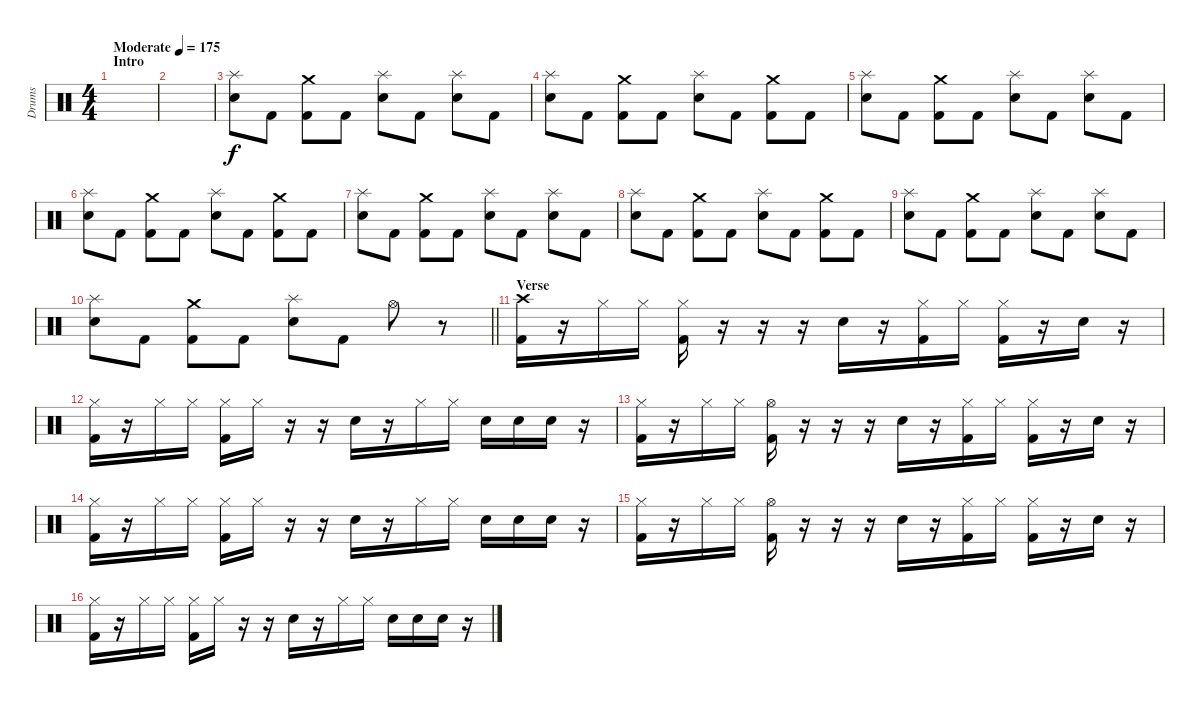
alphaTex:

\track ("Drums" "Drums") {instrument percussion}
\staff {score}
\articulation defaults
\ts (4 4)
\section ("" "Intro")
\tempo (175 "Moderate")
\clef neutral
\ks c
|
|
("Splash (hit)" "Electric Snare (hit)").8 "Kick (hit) 2".8 ("Crash medium (hit)" "Kick (hit) 2").8 "Kick (hit) 2".8 ("Splash (hit)" "Electric Snare (hit)").8 "Kick (hit) 2".8 ("Splash (hit)" "Electric Snare (hit)").8 "Kick (hit) 2".8 |
("Splash (hit)" "Electric Snare (hit)").8 "Kick (hit) 2".8 ("Crash medium (hit)" "Kick (hit) 2").8 "Kick (hit) 2".8 ("Splash (hit)" "Electric Snare (hit)").8 "Kick (hit) 2".8 ("Crash medium (hit)" "Kick (hit) 2").8 "Kick (hit) 2".8 |
("Splash (hit)" "Electric Snare (hit)").8 "Kick (hit) 2".8 ("Crash medium (hit)" "Kick (hit) 2").8 "Kick (hit) 2".8 ("Splash (hit)" "Electric Snare (hit)").8 "Kick (hit) 2".8 ("Splash (hit)" "Electric Snare (hit)").8 "Kick (hit) 2".8 |
("Splash (hit)" "Electric Snare (hit)").8 "Kick (hit) 2".8 ("Crash medium (hit)" "Kick (hit) 2").8 "Kick (hit) 2".8 ("Splash (hit)" "Electric Snare (hit)").8 "Kick (hit) 2".8 ("Crash medium (hit)" "Kick (hit) 2").8 "Kick (hit) 2".8 |
("Splash (hit)" "Electric Snare (hit)").8 "Kick (hit) 2".8 ("Crash medium (hit)" "Kick (hit) 2").8 "Kick (hit) 2".8 ("Splash (hit)" "Electric Snare (hit)").8 "Kick (hit) 2".8 ("Splash (hit)" "Electric Snare (hit)").8 "Kick (hit) 2".8 |
("Splash (hit)" "Electric Snare (hit)").8 "Kick (hit) 2".8 ("Crash medium (hit)" "Kick (hit) 2").8 "Kick (hit) 2".8 ("Splash (hit)" "Electric Snare (hit)").8 "Kick (hit) 2".8 ("Crash medium (hit)" "Kick (hit) 2").8 "Kick (hit) 2".8 |
("Splash (hit)" "Electric Snare (hit)").8 "Kick (hit) 2".8 ("Crash medium (hit)" "Kick (hit) 2").8 "Kick (hit) 2".8 ("Splash (hit)" "Electric Snare (hit)").8 "Kick (hit) 2".8 ("Splash (hit)" "Electric Snare (hit)").8 "Kick (hit) 2".8 |
\barLineRight lightlight
("Splash (hit)" "Electric Snare (hit)").8 "Kick (hit) 2".8 ("Crash medium (hit)" "Kick (hit) 2").8 "Kick (hit) 2".8 ("Splash (hit)" "Electric Snare (hit)").8 "Kick (hit) 2".8 "Hi-Hat (open)".8 r.8 |
\section ("" "Verse")
("Crash high (hit)" "Kick (hit) 2").16 r.16 "Hi-Hat (closed)".16 "Hi-Hat (closed)".16 ("Hi-Hat (closed)" "Kick (hit) 2").16 r.16 r.16 r.16 "Electric Snare (hit)".16 r.16 ("Hi-Hat (closed)" "Kick (hit) 2").16 "Hi-Hat (closed)".16 ("Hi-Hat (closed)" "Kick (hit) 2").16 r.16 "Electric Snare (hit)".16 r.16 |
("Hi-Hat (closed)" "Kick (hit) 2").16 r.16 "Hi-Hat (closed)".16 "Hi-Hat (closed)".16 ("Hi-Hat (closed)" "Kick (hit) 2").16 "Hi-Hat (closed)".16 r.16 r.16 "Electric Snare (hit)".16 r.16 "Hi-Hat (closed)".16 "Hi-Hat (closed)".16 "Electric Snare (hit)".16 "Electric Snare (hit)".16 "Electric Snare (hit)".16 r.16 |
("Hi-Hat (closed)" "Kick (hit) 2").16 r.16 "Hi-Hat (closed)".16 "Hi-Hat (closed)".16 ("Hi-Hat (open)" "Kick (hit) 2").16 r.16 r.16 r.16 "Electric Snare (hit)".16 r.16 ("Hi-Hat (closed)" "Kick (hit) 2").16 "Hi-Hat (closed)".16 ("Hi-Hat (closed)" "Kick (hit) 2").16 r.16 "Electric Snare (hit)".16 r.16 |
("Hi-Hat (closed)" "Kick (hit) 2").16 r.16 "Hi-Hat (closed)".16 "Hi-Hat (closed)".16 ("Hi-Hat (closed)" "Kick (hit) 2").16 "Hi-Hat (closed)".16 r.16 r.16 "Electric Snare (hit)".16 r.16 "Hi-Hat (closed)".16 "Hi-Hat (closed)".16 "Electric Snare (hit)".16 "Electric Snare (hit)".16 "Electric Snare (hit)".16 r.16 |
("Hi-Hat (closed)" "Kick (hit) 2").16 r.16 "Hi-Hat (closed)".16 "Hi-Hat (closed)".16 ("Hi-Hat (open)" "Kick (hit) 2").16 r.16 r.16 r.16 "Electric Snare (hit)".16 r.16 ("Hi-Hat (closed)" "Kick (hit) 2").16 "Hi-Hat (closed)".16 ("Hi-Hat (closed)" "Kick (hit) 2").16 r.16 "Electric Snare (hit)".16 r.16 |
("Hi-Hat (closed)" "Kick (hit) 2").16 r.16 "Hi-Hat (closed)".16 "Hi-Hat (closed)".16 ("Hi-Hat (closed)" "Kick (hit) 2").16 "Hi-Hat (closed)".16 r.16 r.16 "Electric Snare (hit)".16 r.16 "Hi-Hat (closed)".16 "Hi-Hat (closed)".16 "Electric Snare (hit)".16 "Electric Snare (hit)".16 "Electric Snare (hit)".16 r.16
